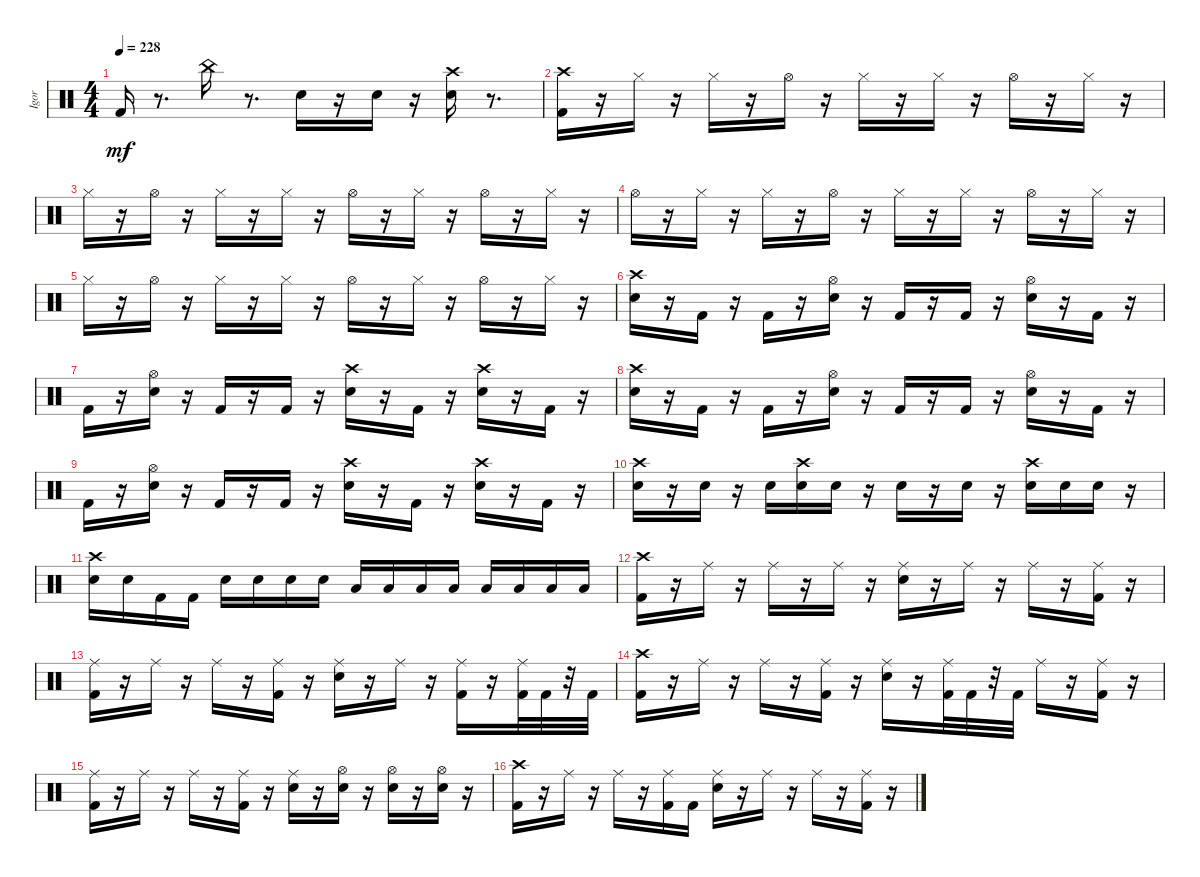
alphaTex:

\track ("Igor" "Igor") {instrument percussion}
\staff {score}
\articulation defaults
\ts (4 4)
\tempo 228
\clef neutral
\ks c "Kick (hit) 2".16{dy mf}
r.8{d} "China (hit)".16 r.8{d} "Snare (hit) 2".16 r.16 "Snare (hit) 2".16 r.16 ("Crash high (hit)" "Snare (hit) 2").16 r.8{d} |
("Kick (hit) 2" "Crash high (hit)").16 r.16 "Hi-Hat (closed)".16 r.16 "Hi-Hat (closed)".16 r.16 "Hi-Hat (open)".16 r.16 "Hi-Hat (closed)".16 r.16 "Hi-Hat (closed)".16 r.16 "Hi-Hat (open)".16 r.16 "Hi-Hat (closed)".16 r.16 |
"Hi-Hat (closed)".16 r.16 "Hi-Hat (open)".16 r.16 "Hi-Hat (closed)".16 r.16 "Hi-Hat (closed)".16 r.16 "Hi-Hat (open)".16 r.16 "Hi-Hat (closed)".16 r.16 "Hi-Hat (open)".16 r.16 "Hi-Hat (closed)".16 r.16 |
"Hi-Hat (open)".16 r.16 "Hi-Hat (closed)".16 r.16 "Hi-Hat (closed)".16 r.16 "Hi-Hat (open)".16 r.16 "Hi-Hat (closed)".16 r.16 "Hi-Hat (closed)".16 r.16 "Hi-Hat (open)".16 r.16 "Hi-Hat (closed)".16 r.16 |
"Hi-Hat (closed)".16 r.16 "Hi-Hat (open)".16 r.16 "Hi-Hat (closed)".16 r.16 "Hi-Hat (closed)".16 r.16 "Hi-Hat (open)".16 r.16 "Hi-Hat (closed)".16 r.16 "Hi-Hat (open)".16 r.16 "Hi-Hat (closed)".16 r.16 |
("Snare (hit) 2" "Crash high (hit)").16 r.16 "Kick (hit) 2".16 r.16 "Kick (hit) 2".16 r.16 ("Snare (hit) 2" "Hi-Hat (open)").16 r.16 "Kick (hit) 2".16 r.16 "Kick (hit) 2".16 r.16 ("Snare (hit) 2" "Hi-Hat (open)").16 r.16 "Kick (hit) 2".16 r.16 |
"Kick (hit) 2".16 r.16 ("Snare (hit) 2" "Hi-Hat (open)").16 r.16 "Kick (hit) 2".16 r.16 "Kick (hit) 2".16 r.16 ("Snare (hit) 2" "Crash high (hit)").16 r.16 "Kick (hit) 2".16 r.16 ("Snare (hit) 2" "Crash high (hit)").16 r.16 "Kick (hit) 2".16 r.16 |
("Snare (hit) 2" "Crash high (hit)").16 r.16 "Kick (hit) 2".16 r.16 "Kick (hit) 2".16 r.16 ("Snare (hit) 2" "Hi-Hat (open)").16 r.16 "Kick (hit) 2".16 r.16 "Kick (hit) 2".16 r.16 ("Snare (hit) 2" "Hi-Hat (open)").16 r.16 "Kick (hit) 2".16 r.16 |
"Kick (hit) 2".16 r.16 ("Snare (hit) 2" "Hi-Hat (open)").16 r.16 "Kick (hit) 2".16 r.16 "Kick (hit) 2".16 r.16 ("Snare (hit) 2" "Crash high (hit)").16 r.16 "Kick (hit) 2".16 r.16 ("Snare (hit) 2" "Crash high (hit)").16 r.16 "Kick (hit) 2".16 r.16 |
("Crash high (hit)" "Snare (hit) 2").16 r.16 "Snare (hit) 2".16 r.16 "Snare (hit) 2".16 ("Snare (hit) 2" "Crash high (hit)").16 "Snare (hit) 2".16 r.16 "Snare (hit) 2".16 r.16 "Snare (hit) 2".16 r.16 ("Crash high (hit)" "Snare (hit) 2").16 "Snare (hit) 2".16 "Snare (hit) 2".16 r.16 |
("Snare (hit) 2" "Crash high (hit)").16 "Snare (hit) 2".16 "Kick (hit) 2".16 "Kick (hit) 2".16 "Snare (hit) 2".16 "Snare (hit) 2".16 "Snare (hit) 2".16 "Snare (hit) 2".16 "Low Floor Tom (hit)".16 "Low Floor Tom (hit)".16 "Low Tom (hit)".16 "Low Tom (hit)".16 "Low Tom (hit)".16 "Low Tom (hit)".16 "Low Floor Tom (hit)".16 "Low Floor Tom (hit)".16 |
("Kick (hit) 2" "Crash high (hit)").16 r.16 "Ride (middle)".16 r.16 "Ride (middle)".16 r.16 "Ride (middle)".16 r.16 ("Ride (middle)" "Snare (hit) 2").16 r.16 "Ride (middle)".16 r.16 "Ride (middle)".16 r.16 ("Ride (middle)" "Kick (hit) 2").16 r.16 |
("Kick (hit) 2" "Ride (middle)").16 r.16 "Ride (middle)".16 r.16 "Ride (middle)".16 r.16 ("Ride (middle)" "Kick (hit) 2").16 r.16 ("Ride (middle)" "Snare (hit) 2").16 r.16 "Ride (middle)".16 r.16 ("Ride (middle)" "Kick (hit) 2").16 r.16 ("Ride (middle)" "Kick (hit) 2").32 "Kick (hit) 2".32 r.32 "Kick (hit) 2".32 |
("Kick (hit) 2" "Crash high (hit)").16 r.16 "Ride (middle)".16 r.16 "Ride (middle)".16 r.16 ("Ride (middle)" "Kick (hit) 2").16 r.16 ("Ride (middle)" "Snare (hit) 2").16 r.16 ("Ride (middle)" "Kick (hit) 2").32 "Kick (hit) 2".32 r.32 "Kick (hit) 2".32 "Ride (middle)".16 r.16 ("Ride (middle)" "Kick (hit) 2").16 r.16 |
("Kick (hit) 2" "Ride (middle)").16 r.16 "Ride (middle)".16 r.16 "Ride (middle)".16 r.16 ("Ride (middle)" "Kick (hit) 2").16 r.16 ("Ride (middle)" "Snare (hit) 2").16 r.16 ("Snare (hit) 2" "Hi-Hat (open)").16 r.16 ("Snare (hit) 2" "Hi-Hat (open)").16 r.16 ("Snare (hit) 2" "Hi-Hat (open)").16 r.16 |
("Kick (hit) 2" "Crash high (hit)").16 r.16 "Ride (middle)".16 r.16 "Ride (middle)".16 r.16 ("Ride (middle)" "Kick (hit) 2").16 "Kick (hit) 2".16 ("Ride (middle)" "Snare (hit) 2").16 r.16 "Ride (middle)".16 r.16 "Ride (middle)".16 r.16 ("Ride (middle)" "Kick (hit) 2").16 r.16
